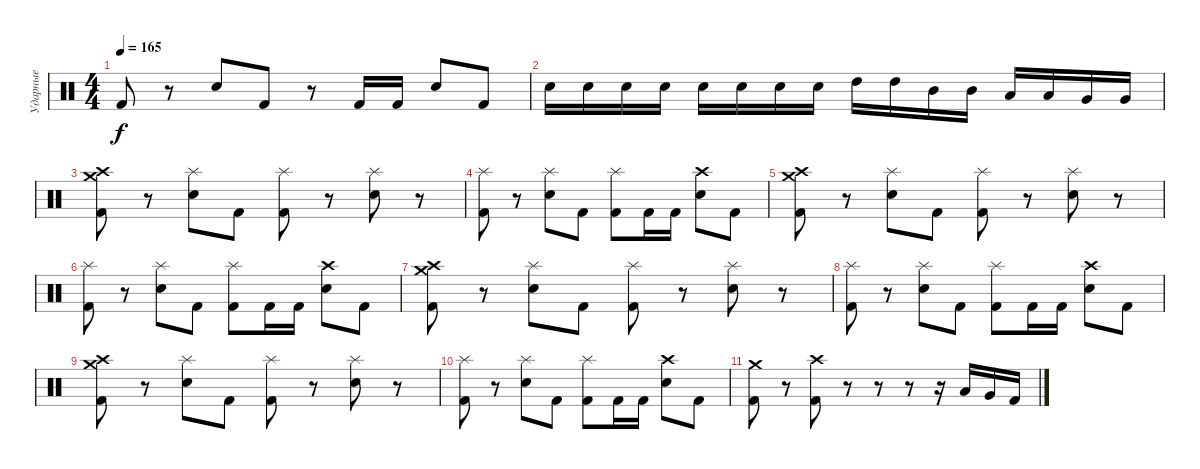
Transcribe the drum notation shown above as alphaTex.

\track ("Ударные" "Ударные") {instrument percussion}
\staff {score}
\articulation defaults
\ts (4 4)
\tempo 165
\clef neutral
\ks c "Kick (hit) 2".8{dy f}
r.8 "Electric Snare (hit)".8 "Kick (hit) 2".8 r.8 "Kick (hit) 2".16 "Kick (hit) 2".16 "Electric Snare (hit)".8 "Kick (hit) 2".8 |
"Electric Snare (hit)".16 "Electric Snare (hit)".16 "Electric Snare (hit)".16 "Electric Snare (hit)".16 "Electric Snare (hit)".16 "Electric Snare (hit)".16 "Electric Snare (hit)".16 "Electric Snare (hit)".16 "High Tom (hit)".16 "High Tom (hit)".16 "Mid Tom (hit)".16 "Mid Tom (hit)".16 "Low Tom (hit)".16 "Low Tom (hit)".16 "Very Low Tom (hit)".16 "Very Low Tom (hit)".16 |
("Crash medium (hit)" "Crash high (hit)" "Kick (hit) 2").8 r.8 ("Splash (hit)" "Electric Snare (hit)").8 "Kick (hit) 2".8 ("Splash (hit)" "Kick (hit) 2").8 r.8 ("Splash (hit)" "Electric Snare (hit)").8 r.8 |
("Splash (hit)" "Kick (hit) 2").8 r.8 ("Splash (hit)" "Electric Snare (hit)").8 "Kick (hit) 2".8 ("Splash (hit)" "Kick (hit) 2").8 "Kick (hit) 2".16 "Kick (hit) 2".16 ("Crash high (hit)" "Electric Snare (hit)").8 "Kick (hit) 2".8 |
("Crash medium (hit)" "Crash high (hit)" "Kick (hit) 2").8 r.8 ("Splash (hit)" "Electric Snare (hit)").8 "Kick (hit) 2".8 ("Splash (hit)" "Kick (hit) 2").8 r.8 ("Splash (hit)" "Electric Snare (hit)").8 r.8 |
("Splash (hit)" "Kick (hit) 2").8 r.8 ("Splash (hit)" "Electric Snare (hit)").8 "Kick (hit) 2".8 ("Splash (hit)" "Kick (hit) 2").8 "Kick (hit) 2".16 "Kick (hit) 2".16 ("Crash high (hit)" "Electric Snare (hit)").8 "Kick (hit) 2".8 |
("Crash medium (hit)" "Crash high (hit)" "Kick (hit) 2").8 r.8 ("Splash (hit)" "Electric Snare (hit)").8 "Kick (hit) 2".8 ("Splash (hit)" "Kick (hit) 2").8 r.8 ("Splash (hit)" "Electric Snare (hit)").8 r.8 |
("Splash (hit)" "Kick (hit) 2").8 r.8 ("Splash (hit)" "Electric Snare (hit)").8 "Kick (hit) 2".8 ("Splash (hit)" "Kick (hit) 2").8 "Kick (hit) 2".16 "Kick (hit) 2".16 ("Crash high (hit)" "Electric Snare (hit)").8 "Kick (hit) 2".8 |
("Crash medium (hit)" "Crash high (hit)" "Kick (hit) 2").8 r.8 ("Splash (hit)" "Electric Snare (hit)").8 "Kick (hit) 2".8 ("Splash (hit)" "Kick (hit) 2").8 r.8 ("Splash (hit)" "Electric Snare (hit)").8 r.8 |
("Splash (hit)" "Kick (hit) 2").8 r.8 ("Splash (hit)" "Electric Snare (hit)").8 "Kick (hit) 2".8 ("Splash (hit)" "Kick (hit) 2").8 "Kick (hit) 2".16 "Kick (hit) 2".16 ("Crash high (hit)" "Electric Snare (hit)").8 "Kick (hit) 2".8 |
("Crash medium (hit)" "Kick (hit) 2").8 r.8 ("Crash high (hit)" "Kick (hit) 2").8 r.8 r.8 r.8 r.16 "Low Tom (hit)".16 "Very Low Tom (hit)".16 "Kick (hit) 2".16
